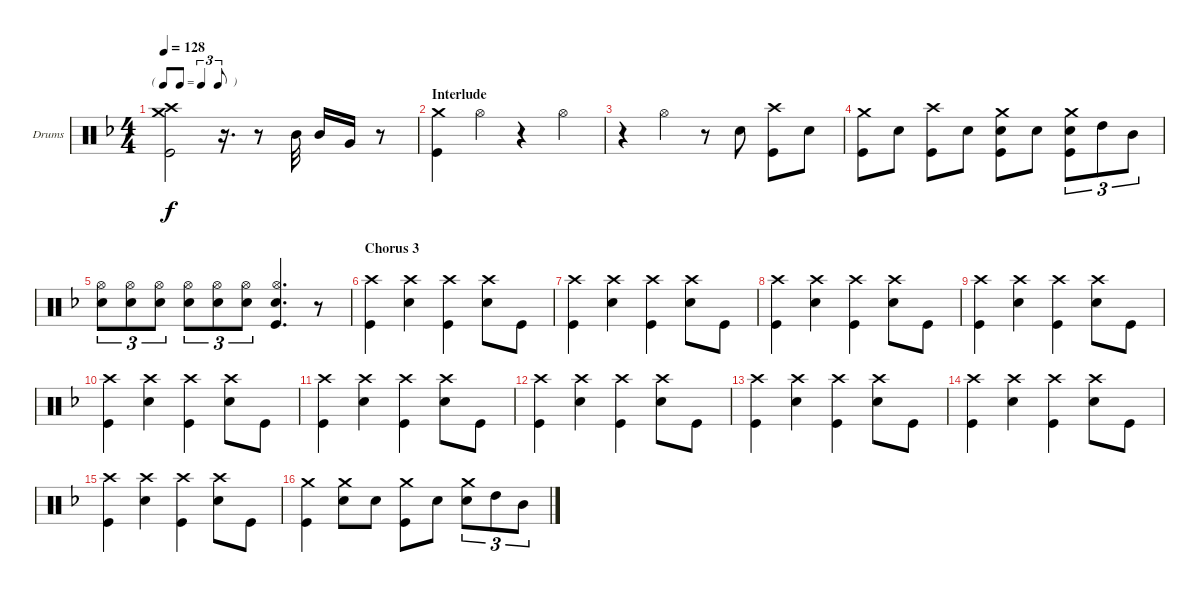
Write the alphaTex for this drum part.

\defaultSystemsLayout 4
\bracketExtendMode groupsimilarinstruments
\firstSystemTrackNameOrientation horizontal
\otherSystemsTrackNameOrientation horizontal
\track ("Drumkit" "Drums") {instrument percussion}
\staff {score}
\articulation defaults
\ts (4 4)
\tf triplet8th
\tempo 128
\clef neutral
\scale
0.333333
\ks f
("Crash medium (hit)" "Crash high (hit)" "Kick (hit)").2{dy f} r.16{d} r.8 "Mid Tom (hit)".32 "Mid Tom (hit)".16 "Very Low Tom (hit)".16 r.8 |
\section ("" "Interlude")
\scale
0.333333 ("Crash medium (hit)" "Kick (hit)").4 "Hi-Hat (open)".4 r.4 "Hi-Hat (open)".4 |
\scale
0.333333 r.4 "Hi-Hat (open)".4 r.8 "Snare (hit) 2".8 ("Crash high (hit)" "Kick (hit)").8 "Snare (hit) 2".8 |
\scale
0.333333 ("Crash medium (hit)" "Kick (hit)").8 "Snare (hit) 2".8 ("Crash high (hit)" "Kick (hit)").8 "Snare (hit) 2".8 ("Snare (hit) 2" "Crash medium (hit)" "Kick (hit)").8 "Snare (hit) 2".8 ("Snare (hit) 2" "Kick (hit)" "Crash medium (hit)").8{tu (3 2)} "High Tom (hit)".8{tu (3 2)} "Mid Tom (hit)".8{tu (3 2)} |
\scale
0.333333 ("Hi-Hat (open)" "Snare (hit) 2").8{tu (3 2)} ("Hi-Hat (open)" "Snare (hit) 2").8{tu (3 2)} ("Hi-Hat (open)" "Snare (hit) 2").8{tu (3 2)} ("Hi-Hat (open)" "Snare (hit) 2").8{tu (3 2)} ("Hi-Hat (open)" "Snare (hit) 2").8{tu (3 2)} ("Hi-Hat (open)" "Snare (hit) 2").8{tu (3 2)} ("Hi-Hat (open)" "Snare (hit) 2" "Kick (hit)").4{d} r.8 |
\section ("" "Chorus 3")
\scale
0.333333 ("Kick (hit)" "Crash high (hit)").4 ("Snare (hit) 2" "Crash high (hit)").4 ("Kick (hit)" "Crash high (hit)").4 ("Snare (hit) 2" "Crash high (hit)").8 "Kick (hit)".8 |
\scale
0.333333 ("Kick (hit)" "Crash high (hit)").4 ("Snare (hit) 2" "Crash high (hit)").4 ("Kick (hit)" "Crash high (hit)").4 ("Snare (hit) 2" "Crash high (hit)").8 "Kick (hit)".8 |
\scale
0.333333 ("Kick (hit)" "Crash high (hit)").4 ("Snare (hit) 2" "Crash high (hit)").4 ("Kick (hit)" "Crash high (hit)").4 ("Snare (hit) 2" "Crash high (hit)").8 "Kick (hit)".8 |
\scale
0.333333 ("Kick (hit)" "Crash high (hit)").4 ("Snare (hit) 2" "Crash high (hit)").4 ("Kick (hit)" "Crash high (hit)").4 ("Snare (hit) 2" "Crash high (hit)").8 "Kick (hit)".8 |
\scale
0.333333 ("Kick (hit)" "Crash high (hit)").4 ("Snare (hit) 2" "Crash high (hit)").4 ("Kick (hit)" "Crash high (hit)").4 ("Snare (hit) 2" "Crash high (hit)").8 "Kick (hit)".8 |
\scale
0.333333 ("Kick (hit)" "Crash high (hit)").4 ("Snare (hit) 2" "Crash high (hit)").4 ("Kick (hit)" "Crash high (hit)").4 ("Snare (hit) 2" "Crash high (hit)").8 "Kick (hit)".8 |
\scale
0.333333 ("Kick (hit)" "Crash high (hit)").4 ("Snare (hit) 2" "Crash high (hit)").4 ("Kick (hit)" "Crash high (hit)").4 ("Snare (hit) 2" "Crash high (hit)").8 "Kick (hit)".8 |
\scale
0.333333 ("Kick (hit)" "Crash high (hit)").4 ("Snare (hit) 2" "Crash high (hit)").4 ("Kick (hit)" "Crash high (hit)").4 ("Snare (hit) 2" "Crash high (hit)").8 "Kick (hit)".8 |
\scale
0.333333 ("Kick (hit)" "Crash high (hit)").4 ("Snare (hit) 2" "Crash high (hit)").4 ("Kick (hit)" "Crash high (hit)").4 ("Snare (hit) 2" "Crash high (hit)").8 "Kick (hit)".8 |
\scale
0.333333 ("Kick (hit)" "Crash high (hit)").4 ("Snare (hit) 2" "Crash high (hit)").4 ("Kick (hit)" "Crash high (hit)").4 ("Snare (hit) 2" "Crash high (hit)").8 "Kick (hit)".8 |
\scale
0.333333 ("Crash medium (hit)" "Kick (hit)").4 ("Crash medium (hit)" "Snare (hit) 2").8 "Snare (hit) 2".8 ("Crash medium (hit)" "Kick (hit)").8 "Snare (hit) 2".8 ("Snare (hit) 2" "Crash medium (hit)").8{tu (3 2)} "High Tom (hit)".8{tu (3 2)} "Mid Tom (hit)".8{tu (3 2)}
